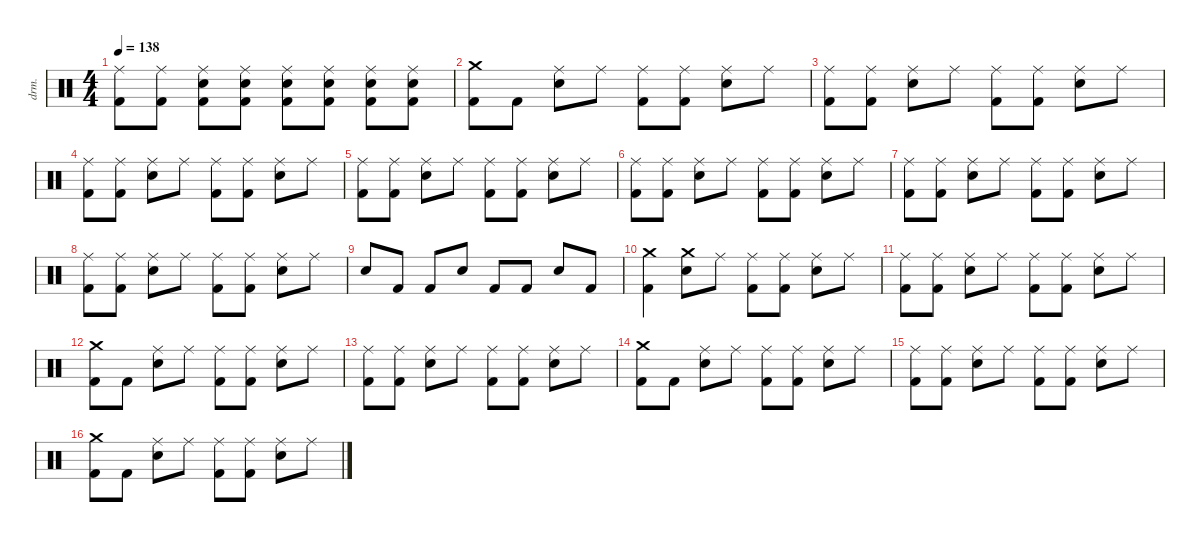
\defaultSystemsLayout 4
\hideDynamics
\bracketExtendMode nobrackets
\otherSystemsTrackNameOrientation horizontal
\track ("Alex Van Halen " "drm.") {instrument percussion}
\staff {score}
\articulation defaults
\ts (4 4)
\tempo 138
\clef neutral
\ks c
("Kick (hit) 2" "Ride (middle)").8{dy mf beam Down} ("Kick (hit) 2" "Ride (middle)").8{dy f beam Down} ("Snare (hit) 2" "Kick (hit) 2" "Ride (middle)").8{beam Down} ("Snare (hit) 2" "Kick (hit) 2" "Ride (middle)").8{beam Down} ("Snare (hit) 2" "Kick (hit) 2" "Ride (middle)").8{dy ff beam Down} ("Snare (hit) 2" "Kick (hit) 2" "Ride (middle)").8{beam Down} ("Snare (hit) 2" "Kick (hit) 2" "Ride (middle)").8{beam Down} ("Snare (hit) 2" "Kick (hit) 2" "Ride (middle)").8{dy fff beam Down} |
("Kick (hit) 2" "Crash medium (hit)").8{dy ff beam Down} "Kick (hit) 2".8{dy f beam Down} ("Snare (hit) 2" "Ride (middle)").8{dy fff beam Down} "Ride (middle)".8{dy f beam Down} ("Kick (hit) 2" "Ride (middle)").8{dy ff beam Down} ("Kick (hit) 2" "Ride (middle)").8{dy f beam Down} ("Snare (hit) 2" "Ride (middle)").8{dy fff beam Down} "Ride (middle)".8{dy f beam Down} |
("Kick (hit) 2" "Ride (middle)").8{dy ff beam Down} ("Kick (hit) 2" "Ride (middle)").8{dy f beam Down} ("Snare (hit) 2" "Ride (middle)").8{dy fff beam Down} "Ride (middle)".8{dy f beam Down} ("Kick (hit) 2" "Ride (middle)").8{dy ff beam Down} ("Kick (hit) 2" "Ride (middle)").8{dy f beam Down} ("Snare (hit) 2" "Ride (middle)").8{dy fff beam Down} "Ride (middle)".8{dy f beam Down} |
("Kick (hit) 2" "Ride (middle)").8{dy ff beam Down} ("Kick (hit) 2" "Ride (middle)").8{dy f beam Down} ("Snare (hit) 2" "Ride (middle)").8{dy fff beam Down} "Ride (middle)".8{dy f beam Down} ("Kick (hit) 2" "Ride (middle)").8{dy ff beam Down} ("Kick (hit) 2" "Ride (middle)").8{dy f beam Down} ("Snare (hit) 2" "Ride (middle)").8{dy fff beam Down} "Ride (middle)".8{dy f beam Down} |
("Kick (hit) 2" "Ride (middle)").8{dy ff beam Down} ("Kick (hit) 2" "Ride (middle)").8{dy f beam Down} ("Snare (hit) 2" "Ride (middle)").8{dy fff beam Down} "Ride (middle)".8{dy f beam Down} ("Kick (hit) 2" "Ride (middle)").8{dy ff beam Down} ("Kick (hit) 2" "Ride (middle)").8{dy f beam Down} ("Snare (hit) 2" "Ride (middle)").8{dy fff beam Down} "Ride (middle)".8{dy f beam Down} |
("Kick (hit) 2" "Ride (middle)").8{dy ff beam Down} ("Kick (hit) 2" "Ride (middle)").8{dy f beam Down} ("Snare (hit) 2" "Ride (middle)").8{dy fff beam Down} "Ride (middle)".8{dy f beam Down} ("Kick (hit) 2" "Ride (middle)").8{dy ff beam Down} ("Kick (hit) 2" "Ride (middle)").8{dy f beam Down} ("Snare (hit) 2" "Ride (middle)").8{dy fff beam Down} "Ride (middle)".8{dy f beam Down} |
("Kick (hit) 2" "Ride (middle)").8{dy ff beam Down} ("Kick (hit) 2" "Ride (middle)").8{dy f beam Down} ("Snare (hit) 2" "Ride (middle)").8{dy fff beam Down} "Ride (middle)".8{dy f beam Down} ("Kick (hit) 2" "Ride (middle)").8{dy ff beam Down} ("Kick (hit) 2" "Ride (middle)").8{dy f beam Down} ("Snare (hit) 2" "Ride (middle)").8{dy fff beam Down} "Ride (middle)".8{dy f beam Down} |
("Kick (hit) 2" "Ride (middle)").8{dy ff beam Down} ("Kick (hit) 2" "Ride (middle)").8{dy f beam Down} ("Snare (hit) 2" "Ride (middle)").8{dy fff beam Down} "Ride (middle)".8{dy f beam Down} ("Kick (hit) 2" "Ride (middle)").8{dy ff beam Down} ("Kick (hit) 2" "Ride (middle)").8{dy f beam Down} ("Snare (hit) 2" "Ride (middle)").8{dy fff beam Down} "Ride (middle)".8{dy f beam Down} |
"Snare (hit) 2".8{dy fff beam Up} "Kick (hit) 2".8{dy ff beam Up} "Kick (hit) 2".8{dy f beam Up} "Snare (hit) 2".8{dy fff beam Up} "Kick (hit) 2".8{dy ff beam Up} "Kick (hit) 2".8{dy f beam Up} "Snare (hit) 2".8{dy fff beam Up} "Kick (hit) 2".8{dy ff beam Up} |
("Kick (hit) 2" "Crash medium (hit)").4{beam Down} ("Snare (hit) 2" "Crash medium (hit)").8{dy fff beam Down} "Ride (middle)".8{dy f beam Down} ("Kick (hit) 2" "Ride (middle)").8{dy ff beam Down} ("Kick (hit) 2" "Ride (middle)").8{dy f beam Down} ("Snare (hit) 2" "Ride (middle)").8{dy fff beam Down} "Ride (middle)".8{dy f beam Down} |
("Kick (hit) 2" "Ride (middle)").8{dy ff beam Down} ("Kick (hit) 2" "Ride (middle)").8{dy f beam Down} ("Snare (hit) 2" "Ride (middle)").8{dy fff beam Down} "Ride (middle)".8{dy f beam Down} ("Kick (hit) 2" "Ride (middle)").8{dy ff beam Down} ("Kick (hit) 2" "Ride (middle)").8{dy f beam Down} ("Snare (hit) 2" "Ride (middle)").8{dy fff beam Down} "Ride (middle)".8{dy f beam Down} |
("Kick (hit) 2" "Crash medium (hit)").8{dy ff beam Down} "Kick (hit) 2".8{dy f beam Down} ("Snare (hit) 2" "Ride (middle)").8{dy fff beam Down} "Ride (middle)".8{dy f beam Down} ("Kick (hit) 2" "Ride (middle)").8{dy ff beam Down} ("Kick (hit) 2" "Ride (middle)").8{dy f beam Down} ("Snare (hit) 2" "Ride (middle)").8{dy fff beam Down} "Ride (middle)".8{dy f beam Down} |
("Kick (hit) 2" "Ride (middle)").8{dy ff beam Down} ("Kick (hit) 2" "Ride (middle)").8{dy f beam Down} ("Snare (hit) 2" "Ride (middle)").8{dy fff beam Down} "Ride (middle)".8{dy f beam Down} ("Kick (hit) 2" "Ride (middle)").8{dy ff beam Down} ("Kick (hit) 2" "Ride (middle)").8{dy f beam Down} ("Snare (hit) 2" "Ride (middle)").8{dy fff beam Down} "Ride (middle)".8{dy f beam Down} |
("Kick (hit) 2" "Crash medium (hit)").8{dy ff beam Down} "Kick (hit) 2".8{dy f beam Down} ("Snare (hit) 2" "Ride (middle)").8{dy fff beam Down} "Ride (middle)".8{dy f beam Down} ("Kick (hit) 2" "Ride (middle)").8{dy ff beam Down} ("Kick (hit) 2" "Ride (middle)").8{dy f beam Down} ("Snare (hit) 2" "Ride (middle)").8{dy fff beam Down} "Ride (middle)".8{dy f beam Down} |
("Kick (hit) 2" "Ride (middle)").8{dy ff beam Down} ("Kick (hit) 2" "Ride (middle)").8{dy f beam Down} ("Snare (hit) 2" "Ride (middle)").8{dy fff beam Down} "Ride (middle)".8{dy f beam Down} ("Kick (hit) 2" "Ride (middle)").8{dy ff beam Down} ("Kick (hit) 2" "Ride (middle)").8{dy f beam Down} ("Snare (hit) 2" "Ride (middle)").8{dy fff beam Down} "Ride (middle)".8{dy f beam Down} |
("Kick (hit) 2" "Crash medium (hit)").8{dy ff beam Down} "Kick (hit) 2".8{dy f beam Down} ("Snare (hit) 2" "Ride (middle)").8{dy fff beam Down} "Ride (middle)".8{dy f beam Down} ("Kick (hit) 2" "Ride (middle)").8{dy ff beam Down} ("Kick (hit) 2" "Ride (middle)").8{dy f beam Down} ("Snare (hit) 2" "Ride (middle)").8{dy fff beam Down} "Ride (middle)".8{dy f beam Down}
